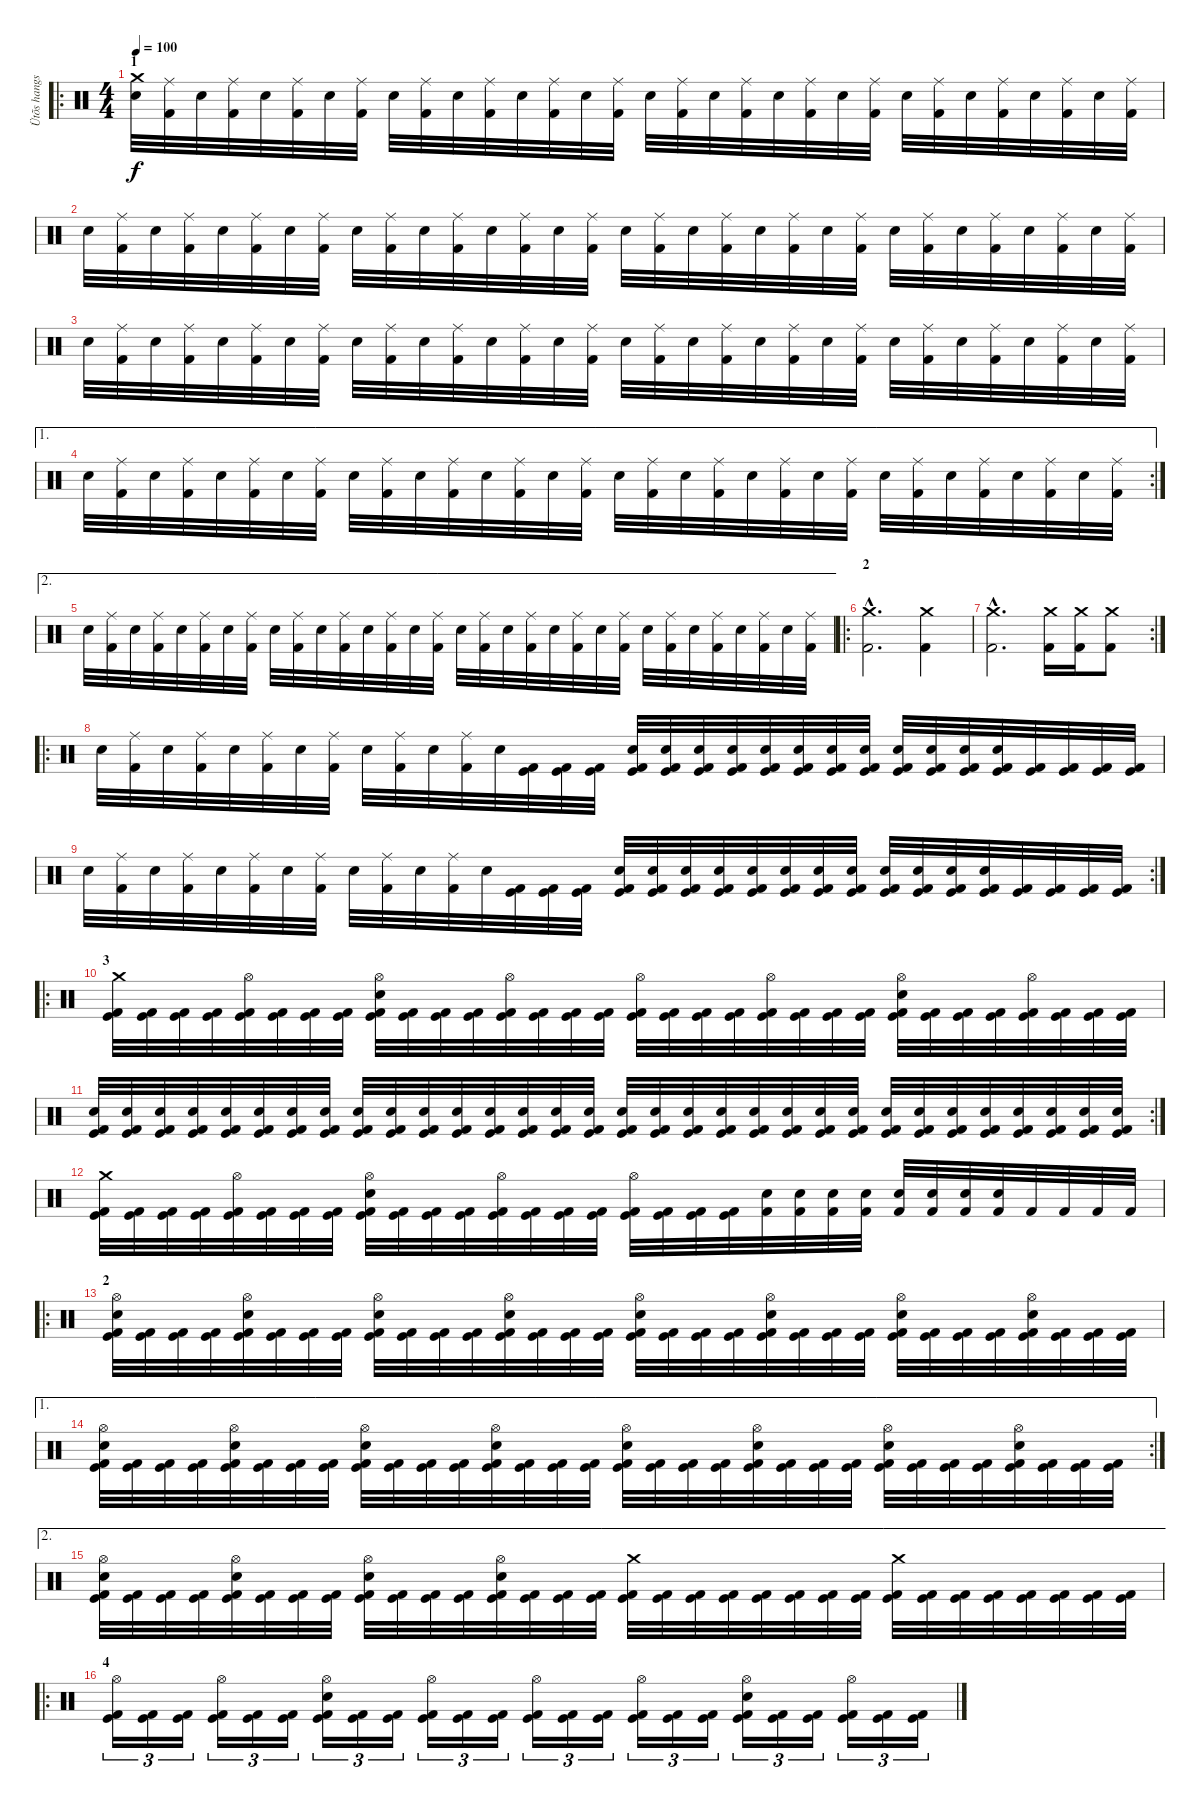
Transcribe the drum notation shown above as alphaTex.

\track ("Ütõs hangszer" "Ütõs hangs") {instrument percussion}
\staff {score}
\articulation defaults
\ro
\ts (4 4)
\section ("" "1")
\tempo 100
\clef neutral
\ks c
("Snare (hit) 2" "Crash medium (hit)").32{dy f} ("Kick (hit) 2" "Ride (middle)").32 "Snare (hit) 2".32 ("Kick (hit) 2" "Ride (middle)").32 "Snare (hit) 2".32 ("Kick (hit) 2" "Ride (middle)").32 "Snare (hit) 2".32 ("Kick (hit) 2" "Ride (middle)").32 "Snare (hit) 2".32 ("Kick (hit) 2" "Ride (middle)").32 "Snare (hit) 2".32 ("Kick (hit) 2" "Ride (middle)").32 "Snare (hit) 2".32 ("Kick (hit) 2" "Ride (middle)").32 "Snare (hit) 2".32 ("Kick (hit) 2" "Ride (middle)").32 "Snare (hit) 2".32 ("Kick (hit) 2" "Ride (middle)").32 "Snare (hit) 2".32 ("Kick (hit) 2" "Ride (middle)").32 "Snare (hit) 2".32 ("Kick (hit) 2" "Ride (middle)").32 "Snare (hit) 2".32 ("Kick (hit) 2" "Ride (middle)").32 "Snare (hit) 2".32 ("Kick (hit) 2" "Ride (middle)").32 "Snare (hit) 2".32 ("Kick (hit) 2" "Ride (middle)").32 "Snare (hit) 2".32 ("Kick (hit) 2" "Ride (middle)").32 "Snare (hit) 2".32 ("Kick (hit) 2" "Ride (middle)").32 |
"Snare (hit) 2".32 ("Kick (hit) 2" "Ride (middle)").32 "Snare (hit) 2".32 ("Kick (hit) 2" "Ride (middle)").32 "Snare (hit) 2".32 ("Kick (hit) 2" "Ride (middle)").32 "Snare (hit) 2".32 ("Kick (hit) 2" "Ride (middle)").32 "Snare (hit) 2".32 ("Kick (hit) 2" "Ride (middle)").32 "Snare (hit) 2".32 ("Kick (hit) 2" "Ride (middle)").32 "Snare (hit) 2".32 ("Kick (hit) 2" "Ride (middle)").32 "Snare (hit) 2".32 ("Kick (hit) 2" "Ride (middle)").32 "Snare (hit) 2".32 ("Kick (hit) 2" "Ride (middle)").32 "Snare (hit) 2".32 ("Kick (hit) 2" "Ride (middle)").32 "Snare (hit) 2".32 ("Kick (hit) 2" "Ride (middle)").32 "Snare (hit) 2".32 ("Kick (hit) 2" "Ride (middle)").32 "Snare (hit) 2".32 ("Kick (hit) 2" "Ride (middle)").32 "Snare (hit) 2".32 ("Kick (hit) 2" "Ride (middle)").32 "Snare (hit) 2".32 ("Kick (hit) 2" "Ride (middle)").32 "Snare (hit) 2".32 ("Kick (hit) 2" "Ride (middle)").32 |
"Snare (hit) 2".32 ("Kick (hit) 2" "Ride (middle)").32 "Snare (hit) 2".32 ("Kick (hit) 2" "Ride (middle)").32 "Snare (hit) 2".32 ("Kick (hit) 2" "Ride (middle)").32 "Snare (hit) 2".32 ("Kick (hit) 2" "Ride (middle)").32 "Snare (hit) 2".32 ("Kick (hit) 2" "Ride (middle)").32 "Snare (hit) 2".32 ("Kick (hit) 2" "Ride (middle)").32 "Snare (hit) 2".32 ("Kick (hit) 2" "Ride (middle)").32 "Snare (hit) 2".32 ("Kick (hit) 2" "Ride (middle)").32 "Snare (hit) 2".32 ("Kick (hit) 2" "Ride (middle)").32 "Snare (hit) 2".32 ("Kick (hit) 2" "Ride (middle)").32 "Snare (hit) 2".32 ("Kick (hit) 2" "Ride (middle)").32 "Snare (hit) 2".32 ("Kick (hit) 2" "Ride (middle)").32 "Snare (hit) 2".32 ("Kick (hit) 2" "Ride (middle)").32 "Snare (hit) 2".32 ("Kick (hit) 2" "Ride (middle)").32 "Snare (hit) 2".32 ("Kick (hit) 2" "Ride (middle)").32 "Snare (hit) 2".32 ("Kick (hit) 2" "Ride (middle)").32 |
\ae 1
\rc 2 "Snare (hit) 2".32
("Kick (hit) 2" "Ride (middle)").32 "Snare (hit) 2".32 ("Kick (hit) 2" "Ride (middle)").32 "Snare (hit) 2".32 ("Kick (hit) 2" "Ride (middle)").32 "Snare (hit) 2".32 ("Kick (hit) 2" "Ride (middle)").32 "Snare (hit) 2".32 ("Kick (hit) 2" "Ride (middle)").32 "Snare (hit) 2".32 ("Kick (hit) 2" "Ride (middle)").32 "Snare (hit) 2".32 ("Kick (hit) 2" "Ride (middle)").32 "Snare (hit) 2".32 ("Kick (hit) 2" "Ride (middle)").32 "Snare (hit) 2".32 ("Kick (hit) 2" "Ride (middle)").32 "Snare (hit) 2".32 ("Kick (hit) 2" "Ride (middle)").32 "Snare (hit) 2".32 ("Kick (hit) 2" "Ride (middle)").32 "Snare (hit) 2".32 ("Kick (hit) 2" "Ride (middle)").32 "Snare (hit) 2".32 ("Kick (hit) 2" "Ride (middle)").32 "Snare (hit) 2".32 ("Kick (hit) 2" "Ride (middle)").32 "Snare (hit) 2".32 ("Kick (hit) 2" "Ride (middle)").32 "Snare (hit) 2".32 ("Kick (hit) 2" "Ride (middle)").32 |
\ae 2 "Snare (hit) 2".32
("Kick (hit) 2" "Ride (middle)").32 "Snare (hit) 2".32 ("Kick (hit) 2" "Ride (middle)").32 "Snare (hit) 2".32 ("Kick (hit) 2" "Ride (middle)").32 "Snare (hit) 2".32 ("Kick (hit) 2" "Ride (middle)").32 "Snare (hit) 2".32 ("Kick (hit) 2" "Ride (middle)").32 "Snare (hit) 2".32 ("Kick (hit) 2" "Ride (middle)").32 "Snare (hit) 2".32 ("Kick (hit) 2" "Ride (middle)").32 "Snare (hit) 2".32 ("Kick (hit) 2" "Ride (middle)").32 "Snare (hit) 2".32 ("Kick (hit) 2" "Ride (middle)").32 "Snare (hit) 2".32 ("Kick (hit) 2" "Ride (middle)").32 "Snare (hit) 2".32 ("Kick (hit) 2" "Ride (middle)").32 "Snare (hit) 2".32 ("Kick (hit) 2" "Ride (middle)").32 "Snare (hit) 2".32 ("Kick (hit) 2" "Ride (middle)").32 "Snare (hit) 2".32 ("Kick (hit) 2" "Ride (middle)").32 "Snare (hit) 2".32 ("Kick (hit) 2" "Ride (middle)").32 "Snare (hit) 2".32 ("Kick (hit) 2" "Ride (middle)").32 |
\ro
\section ("" "2")
("Crash medium (hit)"{hac} "Kick (hit) 2"{hac}).2{d} ("Crash medium (hit)" "Kick (hit) 2").4 |
\rc 2
("Crash medium (hit)"{hac} "Kick (hit) 2"{hac}).2{d} ("Crash medium (hit)" "Kick (hit) 2").16 ("Crash medium (hit)" "Kick (hit) 2").16 ("Crash medium (hit)" "Kick (hit) 2").8 |
\ro "Snare (hit) 2".32
("Ride (middle)" "Kick (hit) 2").32 "Snare (hit) 2".32 ("Ride (middle)" "Kick (hit) 2").32 "Snare (hit) 2".32 ("Ride (middle)" "Kick (hit) 2").32 "Snare (hit) 2".32 ("Ride (middle)" "Kick (hit) 2").32 "Snare (hit) 2".32 ("Ride (middle)" "Kick (hit) 2").32 "Snare (hit) 2".32 ("Ride (middle)" "Kick (hit) 2").32 "Snare (hit) 2".32 ("Kick (hit)" "Kick (hit) 2").32 ("Kick (hit)" "Kick (hit) 2").32 ("Kick (hit)" "Kick (hit) 2").32 ("Snare (hit) 2" "Kick (hit)" "Kick (hit) 2").32 ("Snare (hit) 2" "Kick (hit)" "Kick (hit) 2").32 ("Snare (hit) 2" "Kick (hit)" "Kick (hit) 2").32 ("Snare (hit) 2" "Kick (hit)" "Kick (hit) 2").32 ("Snare (hit) 2" "Kick (hit)" "Kick (hit) 2").32 ("Snare (hit) 2" "Kick (hit)" "Kick (hit) 2").32 ("Snare (hit) 2" "Kick (hit)" "Kick (hit) 2").32 ("Snare (hit) 2" "Kick (hit)" "Kick (hit) 2").32 ("Snare (hit) 2" "Kick (hit)" "Kick (hit) 2").32 ("Snare (hit) 2" "Kick (hit)" "Kick (hit) 2").32 ("Snare (hit) 2" "Kick (hit)" "Kick (hit) 2").32 ("Snare (hit) 2" "Kick (hit)" "Kick (hit) 2").32 ("Kick (hit)" "Kick (hit) 2").32 ("Kick (hit)" "Kick (hit) 2").32 ("Kick (hit)" "Kick (hit) 2").32 ("Kick (hit)" "Kick (hit) 2").32 |
\rc 2 "Snare (hit) 2".32
("Ride (middle)" "Kick (hit) 2").32 "Snare (hit) 2".32 ("Ride (middle)" "Kick (hit) 2").32 "Snare (hit) 2".32 ("Ride (middle)" "Kick (hit) 2").32 "Snare (hit) 2".32 ("Ride (middle)" "Kick (hit) 2").32 "Snare (hit) 2".32 ("Ride (middle)" "Kick (hit) 2").32 "Snare (hit) 2".32 ("Ride (middle)" "Kick (hit) 2").32 "Snare (hit) 2".32 ("Kick (hit)" "Kick (hit) 2").32 ("Kick (hit)" "Kick (hit) 2").32 ("Kick (hit)" "Kick (hit) 2").32 ("Snare (hit) 2" "Kick (hit)" "Kick (hit) 2").32 ("Snare (hit) 2" "Kick (hit)" "Kick (hit) 2").32 ("Snare (hit) 2" "Kick (hit)" "Kick (hit) 2").32 ("Snare (hit) 2" "Kick (hit)" "Kick (hit) 2").32 ("Snare (hit) 2" "Kick (hit)" "Kick (hit) 2").32 ("Snare (hit) 2" "Kick (hit)" "Kick (hit) 2").32 ("Snare (hit) 2" "Kick (hit)" "Kick (hit) 2").32 ("Snare (hit) 2" "Kick (hit)" "Kick (hit) 2").32 ("Snare (hit) 2" "Kick (hit)" "Kick (hit) 2").32 ("Snare (hit) 2" "Kick (hit)" "Kick (hit) 2").32 ("Snare (hit) 2" "Kick (hit)" "Kick (hit) 2").32 ("Snare (hit) 2" "Kick (hit)" "Kick (hit) 2").32 ("Kick (hit)" "Kick (hit) 2").32 ("Kick (hit)" "Kick (hit) 2").32 ("Kick (hit)" "Kick (hit) 2").32 ("Kick (hit)" "Kick (hit) 2").32 |
\ro
\section ("" "3")
("Crash medium (hit)" "Kick (hit)" "Kick (hit) 2").32 ("Kick (hit)" "Kick (hit) 2").32 ("Kick (hit)" "Kick (hit) 2").32 ("Kick (hit)" "Kick (hit) 2").32 ("Hi-Hat (open)" "Kick (hit)" "Kick (hit) 2").32 ("Kick (hit)" "Kick (hit) 2").32 ("Kick (hit)" "Kick (hit) 2").32 ("Kick (hit)" "Kick (hit) 2").32 ("Hi-Hat (open)" "Snare (hit) 2" "Kick (hit)" "Kick (hit) 2").32 ("Kick (hit)" "Kick (hit) 2").32 ("Kick (hit)" "Kick (hit) 2").32 ("Kick (hit)" "Kick (hit) 2").32 ("Hi-Hat (open)" "Kick (hit)" "Kick (hit) 2").32 ("Kick (hit)" "Kick (hit) 2").32 ("Kick (hit)" "Kick (hit) 2").32 ("Kick (hit)" "Kick (hit) 2").32 ("Hi-Hat (open)" "Kick (hit)" "Kick (hit) 2").32 ("Kick (hit)" "Kick (hit) 2").32 ("Kick (hit)" "Kick (hit) 2").32 ("Kick (hit)" "Kick (hit) 2").32 ("Hi-Hat (open)" "Kick (hit)" "Kick (hit) 2").32 ("Kick (hit)" "Kick (hit) 2").32 ("Kick (hit)" "Kick (hit) 2").32 ("Kick (hit)" "Kick (hit) 2").32 ("Hi-Hat (open)" "Snare (hit) 2" "Kick (hit)" "Kick (hit) 2").32 ("Kick (hit)" "Kick (hit) 2").32 ("Kick (hit)" "Kick (hit) 2").32 ("Kick (hit)" "Kick (hit) 2").32 ("Hi-Hat (open)" "Kick (hit)" "Kick (hit) 2").32 ("Kick (hit)" "Kick (hit) 2").32 ("Kick (hit)" "Kick (hit) 2").32 ("Kick (hit)" "Kick (hit) 2").32 |
\rc 2
("Snare (hit) 2" "Kick (hit)" "Kick (hit) 2").32 ("Snare (hit) 2" "Kick (hit)" "Kick (hit) 2").32 ("Snare (hit) 2" "Kick (hit)" "Kick (hit) 2").32 ("Snare (hit) 2" "Kick (hit)" "Kick (hit) 2").32 ("Snare (hit) 2" "Kick (hit)" "Kick (hit) 2").32 ("Snare (hit) 2" "Kick (hit)" "Kick (hit) 2").32 ("Snare (hit) 2" "Kick (hit)" "Kick (hit) 2").32 ("Snare (hit) 2" "Kick (hit)" "Kick (hit) 2").32 ("Snare (hit) 2" "Kick (hit)" "Kick (hit) 2").32 ("Snare (hit) 2" "Kick (hit)" "Kick (hit) 2").32 ("Snare (hit) 2" "Kick (hit)" "Kick (hit) 2").32 ("Snare (hit) 2" "Kick (hit)" "Kick (hit) 2").32 ("Snare (hit) 2" "Kick (hit)" "Kick (hit) 2").32 ("Snare (hit) 2" "Kick (hit)" "Kick (hit) 2").32 ("Snare (hit) 2" "Kick (hit)" "Kick (hit) 2").32 ("Snare (hit) 2" "Kick (hit)" "Kick (hit) 2").32 ("Snare (hit) 2" "Kick (hit)" "Kick (hit) 2").32 ("Snare (hit) 2" "Kick (hit)" "Kick (hit) 2").32 ("Snare (hit) 2" "Kick (hit)" "Kick (hit) 2").32 ("Snare (hit) 2" "Kick (hit)" "Kick (hit) 2").32 ("Snare (hit) 2" "Kick (hit)" "Kick (hit) 2").32 ("Snare (hit) 2" "Kick (hit)" "Kick (hit) 2").32 ("Snare (hit) 2" "Kick (hit)" "Kick (hit) 2").32 ("Snare (hit) 2" "Kick (hit)" "Kick (hit) 2").32 ("Snare (hit) 2" "Kick (hit)" "Kick (hit) 2").32 ("Snare (hit) 2" "Kick (hit)" "Kick (hit) 2").32 ("Snare (hit) 2" "Kick (hit)" "Kick (hit) 2").32 ("Snare (hit) 2" "Kick (hit)" "Kick (hit) 2").32 ("Snare (hit) 2" "Kick (hit)" "Kick (hit) 2").32 ("Snare (hit) 2" "Kick (hit)" "Kick (hit) 2").32 ("Snare (hit) 2" "Kick (hit)" "Kick (hit) 2").32 ("Snare (hit) 2" "Kick (hit)" "Kick (hit) 2").32 |
("Crash medium (hit)" "Kick (hit)" "Kick (hit) 2").32 ("Kick (hit)" "Kick (hit) 2").32 ("Kick (hit)" "Kick (hit) 2").32 ("Kick (hit)" "Kick (hit) 2").32 ("Hi-Hat (open)" "Kick (hit)" "Kick (hit) 2").32 ("Kick (hit)" "Kick (hit) 2").32 ("Kick (hit)" "Kick (hit) 2").32 ("Kick (hit)" "Kick (hit) 2").32 ("Hi-Hat (open)" "Snare (hit) 2" "Kick (hit)" "Kick (hit) 2").32 ("Kick (hit)" "Kick (hit) 2").32 ("Kick (hit)" "Kick (hit) 2").32 ("Kick (hit)" "Kick (hit) 2").32 ("Hi-Hat (open)" "Kick (hit)" "Kick (hit) 2").32 ("Kick (hit)" "Kick (hit) 2").32 ("Kick (hit)" "Kick (hit) 2").32 ("Kick (hit)" "Kick (hit) 2").32 ("Hi-Hat (open)" "Kick (hit)" "Kick (hit) 2").32 ("Kick (hit)" "Kick (hit) 2").32 ("Kick (hit)" "Kick (hit) 2").32 ("Kick (hit)" "Kick (hit) 2").32 ("Snare (hit) 2" "Kick (hit) 2").32 ("Snare (hit) 2" "Kick (hit) 2").32 ("Snare (hit) 2" "Kick (hit) 2").32 ("Snare (hit) 2" "Kick (hit) 2").32 ("Snare (hit) 2" "Kick (hit) 2").32 ("Snare (hit) 2" "Kick (hit) 2").32 ("Snare (hit) 2" "Kick (hit) 2").32 ("Snare (hit) 2" "Kick (hit) 2").32 "Kick (hit) 2".32 "Kick (hit) 2".32 "Kick (hit) 2".32 "Kick (hit) 2".32 |
\ro
\section ("" "2")
("Hi-Hat (open)" "Snare (hit) 2" "Kick (hit)" "Kick (hit) 2").32 ("Kick (hit)" "Kick (hit) 2").32 ("Kick (hit)" "Kick (hit) 2").32 ("Kick (hit)" "Kick (hit) 2").32 ("Hi-Hat (open)" "Snare (hit) 2" "Kick (hit)" "Kick (hit) 2").32 ("Kick (hit)" "Kick (hit) 2").32 ("Kick (hit)" "Kick (hit) 2").32 ("Kick (hit)" "Kick (hit) 2").32 ("Hi-Hat (open)" "Snare (hit) 2" "Kick (hit)" "Kick (hit) 2").32 ("Kick (hit)" "Kick (hit) 2").32 ("Kick (hit)" "Kick (hit) 2").32 ("Kick (hit)" "Kick (hit) 2").32 ("Hi-Hat (open)" "Snare (hit) 2" "Kick (hit)" "Kick (hit) 2").32 ("Kick (hit)" "Kick (hit) 2").32 ("Kick (hit)" "Kick (hit) 2").32 ("Kick (hit)" "Kick (hit) 2").32 ("Hi-Hat (open)" "Snare (hit) 2" "Kick (hit)" "Kick (hit) 2").32 ("Kick (hit)" "Kick (hit) 2").32 ("Kick (hit)" "Kick (hit) 2").32 ("Kick (hit)" "Kick (hit) 2").32 ("Hi-Hat (open)" "Snare (hit) 2" "Kick (hit)" "Kick (hit) 2").32 ("Kick (hit)" "Kick (hit) 2").32 ("Kick (hit)" "Kick (hit) 2").32 ("Kick (hit)" "Kick (hit) 2").32 ("Hi-Hat (open)" "Snare (hit) 2" "Kick (hit)" "Kick (hit) 2").32 ("Kick (hit)" "Kick (hit) 2").32 ("Kick (hit)" "Kick (hit) 2").32 ("Kick (hit)" "Kick (hit) 2").32 ("Hi-Hat (open)" "Snare (hit) 2" "Kick (hit)" "Kick (hit) 2").32 ("Kick (hit)" "Kick (hit) 2").32 ("Kick (hit)" "Kick (hit) 2").32 ("Kick (hit)" "Kick (hit) 2").32 |
\ae 1
\rc 2
("Hi-Hat (open)" "Snare (hit) 2" "Kick (hit)" "Kick (hit) 2").32 ("Kick (hit)" "Kick (hit) 2").32 ("Kick (hit)" "Kick (hit) 2").32 ("Kick (hit)" "Kick (hit) 2").32 ("Hi-Hat (open)" "Snare (hit) 2" "Kick (hit)" "Kick (hit) 2").32 ("Kick (hit)" "Kick (hit) 2").32 ("Kick (hit)" "Kick (hit) 2").32 ("Kick (hit)" "Kick (hit) 2").32 ("Hi-Hat (open)" "Snare (hit) 2" "Kick (hit)" "Kick (hit) 2").32 ("Kick (hit)" "Kick (hit) 2").32 ("Kick (hit)" "Kick (hit) 2").32 ("Kick (hit)" "Kick (hit) 2").32 ("Hi-Hat (open)" "Snare (hit) 2" "Kick (hit)" "Kick (hit) 2").32 ("Kick (hit)" "Kick (hit) 2").32 ("Kick (hit)" "Kick (hit) 2").32 ("Kick (hit)" "Kick (hit) 2").32 ("Hi-Hat (open)" "Snare (hit) 2" "Kick (hit)" "Kick (hit) 2").32 ("Kick (hit)" "Kick (hit) 2").32 ("Kick (hit)" "Kick (hit) 2").32 ("Kick (hit)" "Kick (hit) 2").32 ("Hi-Hat (open)" "Snare (hit) 2" "Kick (hit)" "Kick (hit) 2").32 ("Kick (hit)" "Kick (hit) 2").32 ("Kick (hit)" "Kick (hit) 2").32 ("Kick (hit)" "Kick (hit) 2").32 ("Hi-Hat (open)" "Snare (hit) 2" "Kick (hit)" "Kick (hit) 2").32 ("Kick (hit)" "Kick (hit) 2").32 ("Kick (hit)" "Kick (hit) 2").32 ("Kick (hit)" "Kick (hit) 2").32 ("Hi-Hat (open)" "Snare (hit) 2" "Kick (hit)" "Kick (hit) 2").32 ("Kick (hit)" "Kick (hit) 2").32 ("Kick (hit)" "Kick (hit) 2").32 ("Kick (hit)" "Kick (hit) 2").32 |
\ae 2
("Hi-Hat (open)" "Snare (hit) 2" "Kick (hit)" "Kick (hit) 2").32 ("Kick (hit)" "Kick (hit) 2").32 ("Kick (hit)" "Kick (hit) 2").32 ("Kick (hit)" "Kick (hit) 2").32 ("Hi-Hat (open)" "Snare (hit) 2" "Kick (hit)" "Kick (hit) 2").32 ("Kick (hit)" "Kick (hit) 2").32 ("Kick (hit)" "Kick (hit) 2").32 ("Kick (hit)" "Kick (hit) 2").32 ("Hi-Hat (open)" "Snare (hit) 2" "Kick (hit)" "Kick (hit) 2").32 ("Kick (hit)" "Kick (hit) 2").32 ("Kick (hit)" "Kick (hit) 2").32 ("Kick (hit)" "Kick (hit) 2").32 ("Hi-Hat (open)" "Snare (hit) 2" "Kick (hit)" "Kick (hit) 2").32 ("Kick (hit)" "Kick (hit) 2").32 ("Kick (hit)" "Kick (hit) 2").32 ("Kick (hit)" "Kick (hit) 2").32 ("Crash medium (hit)" "Kick (hit)" "Kick (hit) 2").32 ("Kick (hit)" "Kick (hit) 2").32 ("Kick (hit)" "Kick (hit) 2").32 ("Kick (hit)" "Kick (hit) 2").32 ("Kick (hit)" "Kick (hit) 2").32 ("Kick (hit)" "Kick (hit) 2").32 ("Kick (hit)" "Kick (hit) 2").32 ("Kick (hit)" "Kick (hit) 2").32 ("Crash medium (hit)" "Kick (hit)" "Kick (hit) 2").32 ("Kick (hit)" "Kick (hit) 2").32 ("Kick (hit)" "Kick (hit) 2").32 ("Kick (hit)" "Kick (hit) 2").32 ("Kick (hit)" "Kick (hit) 2").32 ("Kick (hit)" "Kick (hit) 2").32 ("Kick (hit)" "Kick (hit) 2").32 ("Kick (hit)" "Kick (hit) 2").32 |
\ro
\section ("" "4")
("Hi-Hat (open)" "Kick (hit)" "Kick (hit) 2").16{tu (3 2)} ("Kick (hit)" "Kick (hit) 2").16{tu (3 2)} ("Kick (hit)" "Kick (hit) 2").16{tu (3 2)} ("Hi-Hat (open)" "Kick (hit)" "Kick (hit) 2").16{tu (3 2)} ("Kick (hit)" "Kick (hit) 2").16{tu (3 2)} ("Kick (hit)" "Kick (hit) 2").16{tu (3 2)} ("Hi-Hat (open)" "Snare (hit) 2" "Kick (hit)" "Kick (hit) 2").16{tu (3 2)} ("Kick (hit)" "Kick (hit) 2").16{tu (3 2)} ("Kick (hit)" "Kick (hit) 2").16{tu (3 2)} ("Hi-Hat (open)" "Kick (hit)" "Kick (hit) 2").16{tu (3 2)} ("Kick (hit)" "Kick (hit) 2").16{tu (3 2)} ("Kick (hit)" "Kick (hit) 2").16{tu (3 2)} ("Hi-Hat (open)" "Kick (hit)" "Kick (hit) 2").16{tu (3 2)} ("Kick (hit)" "Kick (hit) 2").16{tu (3 2)} ("Kick (hit)" "Kick (hit) 2").16{tu (3 2)} ("Hi-Hat (open)" "Kick (hit)" "Kick (hit) 2").16{tu (3 2)} ("Kick (hit)" "Kick (hit) 2").16{tu (3 2)} ("Kick (hit)" "Kick (hit) 2").16{tu (3 2)} ("Hi-Hat (open)" "Snare (hit) 2" "Kick (hit)" "Kick (hit) 2").16{tu (3 2)} ("Kick (hit)" "Kick (hit) 2").16{tu (3 2)} ("Kick (hit)" "Kick (hit) 2").16{tu (3 2)} ("Hi-Hat (open)" "Kick (hit)" "Kick (hit) 2").16{tu (3 2)} ("Kick (hit)" "Kick (hit) 2").16{tu (3 2)} ("Kick (hit)" "Kick (hit) 2").16{tu (3 2)}
